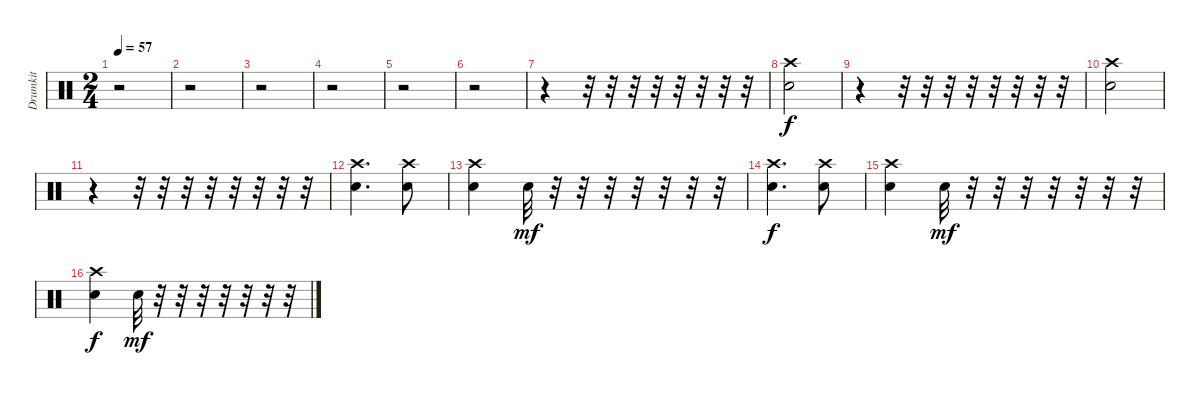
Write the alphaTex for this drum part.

\track ("Drumkit" "Drumkit") {instrument percussion}
\staff {score}
\articulation defaults
\ts (2 4)
\tempo 57
\clef neutral
\ks c
r.2{dy f} |
r.2 |
r.2 |
r.2 |
r.2 |
r.2 |
r.4 r.32 r.32 r.32 r.32 r.32 r.32 r.32 r.32 |
("Crash high (hit)" "Snare (hit) 2").2 |
r.4 r.32 r.32 r.32 r.32 r.32 r.32 r.32 r.32 |
("Crash high (hit)" "Snare (hit) 2").2 |
r.4 r.32 r.32 r.32 r.32 r.32 r.32 r.32 r.32 |
("Crash high (hit)" "Snare (hit) 2").4{d} ("Crash high (hit)" "Snare (hit) 2").8 |
("Crash high (hit)" "Snare (hit) 2").4 "Snare (hit) 2".32{dy mf} r.32 r.32 r.32 r.32 r.32 r.32 r.32 |
("Crash high (hit)" "Snare (hit) 2").4{d dy f} ("Crash high (hit)" "Snare (hit) 2").8 |
("Crash high (hit)" "Snare (hit) 2").4 "Snare (hit) 2".32{dy mf} r.32 r.32 r.32 r.32 r.32 r.32 r.32 |
("Crash high (hit)" "Snare (hit) 2").4{dy f} "Snare (hit) 2".32{dy mf} r.32 r.32 r.32 r.32 r.32 r.32 r.32
